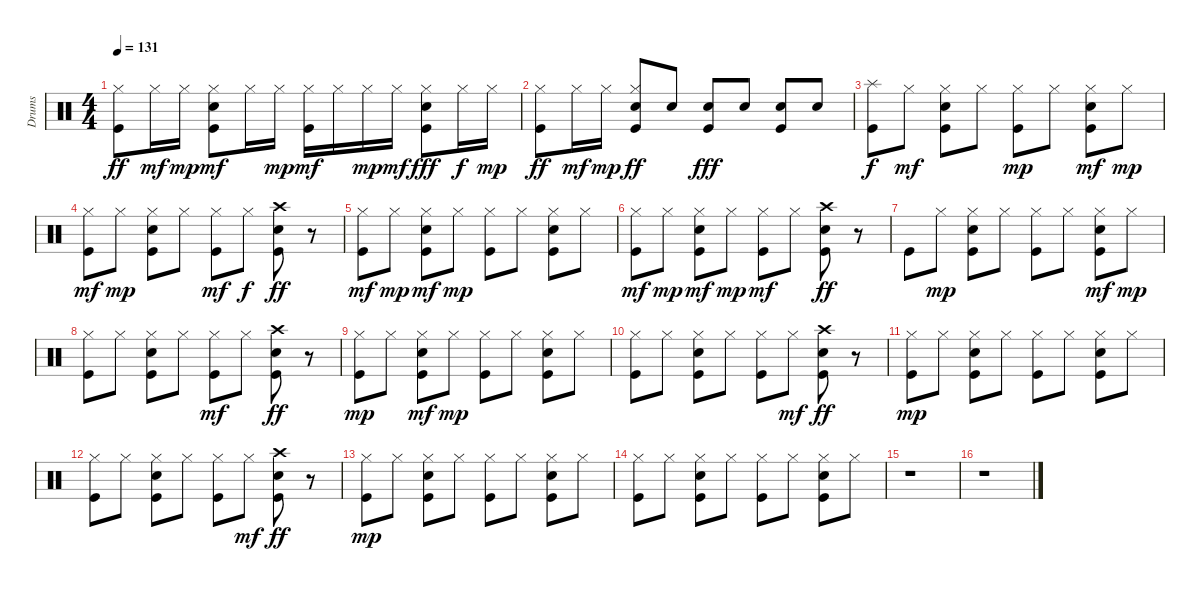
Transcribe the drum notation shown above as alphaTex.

\track ("Drums" "Drums") {instrument percussion}
\staff {score}
\articulation defaults
\ts (4 4)
\tempo 131
\clef neutral
\ks c
("Kick (hit)" "Hi-Hat (closed)").8{dy ff} "Hi-Hat (closed)".16{dy mf} "Hi-Hat (closed)".16{dy mp} ("Kick (hit)" "Snare (hit) 2" "Hi-Hat (closed)").8{dy mf} "Hi-Hat (closed)".16 "Hi-Hat (closed)".16{dy mp} ("Kick (hit)" "Hi-Hat (closed)").16{dy mf} "Hi-Hat (closed)".16 "Hi-Hat (closed)".16{dy mp} "Hi-Hat (closed)".16{dy mf} ("Kick (hit)" "Snare (hit) 2" "Hi-Hat (closed)").8{dy fff} "Hi-Hat (closed)".16{dy f} "Hi-Hat (closed)".16{dy mp} |
("Kick (hit)" "Hi-Hat (closed)").8{dy ff} "Hi-Hat (closed)".16{dy mf} "Hi-Hat (closed)".16{dy mp} ("Kick (hit)" "Snare (hit) 2" "Hi-Hat (closed)").8{dy ff} "Snare (hit) 2".8 ("Kick (hit)" "Snare (hit) 2").8{dy fff} "Snare (hit) 2".8 ("Kick (hit)" "Snare (hit) 2").8 "Snare (hit) 2".8 |
("Kick (hit)" "Splash (hit)").8{dy f} "Hi-Hat (closed)".8{dy mf} ("Kick (hit)" "Snare (hit) 2" "Hi-Hat (closed)").8 "Hi-Hat (closed)".8 ("Kick (hit)" "Hi-Hat (closed)").8{dy mp} "Hi-Hat (closed)".8 ("Kick (hit)" "Snare (hit) 2" "Hi-Hat (closed)").8{dy mf} "Hi-Hat (closed)".8{dy mp} |
("Kick (hit)" "Hi-Hat (closed)").8{dy mf} "Hi-Hat (closed)".8{dy mp} ("Kick (hit)" "Snare (hit) 2" "Hi-Hat (closed)").8 "Hi-Hat (closed)".8 ("Kick (hit)" "Hi-Hat (closed)").8{dy mf} "Hi-Hat (closed)".8{dy f} ("Kick (hit)" "Snare (hit) 2" "Crash high (hit)").8{dy ff} r.8 |
("Kick (hit)" "Hi-Hat (closed)").8{dy mf} "Hi-Hat (closed)".8{dy mp} ("Kick (hit)" "Snare (hit) 2" "Hi-Hat (closed)").8{dy mf} "Hi-Hat (closed)".8{dy mp} ("Kick (hit)" "Hi-Hat (closed)").8 "Hi-Hat (closed)".8 ("Kick (hit)" "Snare (hit) 2" "Hi-Hat (closed)").8 "Hi-Hat (closed)".8 |
("Kick (hit)" "Hi-Hat (closed)").8{dy mf} "Hi-Hat (closed)".8{dy mp} ("Kick (hit)" "Snare (hit) 2" "Hi-Hat (closed)").8{dy mf} "Hi-Hat (closed)".8{dy mp} ("Kick (hit)" "Hi-Hat (closed)").8{dy mf} "Hi-Hat (closed)".8 ("Kick (hit)" "Snare (hit) 2" "Crash high (hit)").8{dy ff} r.8 |
"Kick (hit)".8 "Hi-Hat (closed)".8{dy mp} ("Kick (hit)" "Snare (hit) 2" "Hi-Hat (closed)").8 "Hi-Hat (closed)".8 ("Kick (hit)" "Hi-Hat (closed)").8 "Hi-Hat (closed)".8 ("Kick (hit)" "Snare (hit) 2" "Hi-Hat (closed)").8{dy mf} "Hi-Hat (closed)".8{dy mp} |
("Kick (hit)" "Hi-Hat (closed)").8 "Hi-Hat (closed)".8 ("Kick (hit)" "Snare (hit) 2" "Hi-Hat (closed)").8 "Hi-Hat (closed)".8 ("Kick (hit)" "Hi-Hat (closed)").8{dy mf} "Hi-Hat (closed)".8 ("Kick (hit)" "Snare (hit) 2" "Crash high (hit)").8{dy ff} r.8 |
("Kick (hit)" "Hi-Hat (closed)").8{dy mp} "Hi-Hat (closed)".8 ("Kick (hit)" "Snare (hit) 2" "Hi-Hat (closed)").8{dy mf} "Hi-Hat (closed)".8{dy mp} ("Kick (hit)" "Hi-Hat (closed)").8 "Hi-Hat (closed)".8 ("Kick (hit)" "Snare (hit) 2" "Hi-Hat (closed)").8 "Hi-Hat (closed)".8 |
("Kick (hit)" "Hi-Hat (closed)").8 "Hi-Hat (closed)".8 ("Kick (hit)" "Snare (hit) 2" "Hi-Hat (closed)").8 "Hi-Hat (closed)".8 ("Kick (hit)" "Hi-Hat (closed)").8 "Hi-Hat (closed)".8{dy mf} ("Kick (hit)" "Snare (hit) 2" "Crash high (hit)").8{dy ff} r.8 |
("Kick (hit)" "Hi-Hat (closed)").8{dy mp} "Hi-Hat (closed)".8 ("Kick (hit)" "Snare (hit) 2" "Hi-Hat (closed)").8 "Hi-Hat (closed)".8 ("Kick (hit)" "Hi-Hat (closed)").8 "Hi-Hat (closed)".8 ("Kick (hit)" "Snare (hit) 2" "Hi-Hat (closed)").8 "Hi-Hat (closed)".8 |
("Kick (hit)" "Hi-Hat (closed)").8 "Hi-Hat (closed)".8 ("Kick (hit)" "Snare (hit) 2" "Hi-Hat (closed)").8 "Hi-Hat (closed)".8 ("Kick (hit)" "Hi-Hat (closed)").8 "Hi-Hat (closed)".8{dy mf} ("Snare (hit) 2" "Kick (hit)" "Crash high (hit)").8{dy ff} r.8 |
("Kick (hit)" "Hi-Hat (closed)").8{dy mp} "Hi-Hat (closed)".8 ("Kick (hit)" "Snare (hit) 2" "Hi-Hat (closed)").8 "Hi-Hat (closed)".8 ("Kick (hit)" "Hi-Hat (closed)").8 "Hi-Hat (closed)".8 ("Kick (hit)" "Snare (hit) 2" "Hi-Hat (closed)").8 "Hi-Hat (closed)".8 |
("Kick (hit)" "Hi-Hat (closed)").8 "Hi-Hat (closed)".8 ("Kick (hit)" "Snare (hit) 2" "Hi-Hat (closed)").8 "Hi-Hat (closed)".8 ("Kick (hit)" "Hi-Hat (closed)").8 "Hi-Hat (closed)".8 ("Kick (hit)" "Snare (hit) 2" "Hi-Hat (closed)").8 "Hi-Hat (closed)".8 |
r.1 |
r.1
